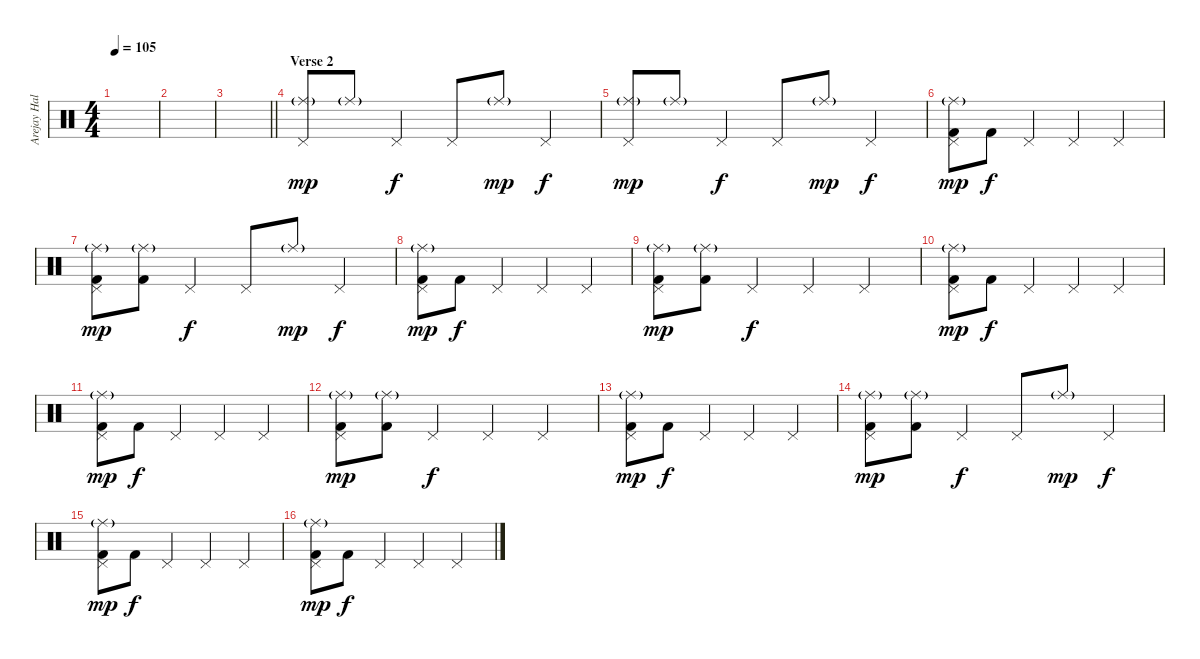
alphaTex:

\track ("Arejay Hale" "Arejay Hal") {instrument percussion}
\staff {score}
\articulation defaults
\ts (4 4)
\tempo 105
\clef neutral
\ks c
|
|
\barLineRight lightlight
|
\section ("" "Verse 2")
("Ride (middle)"{g} "Pedal Hi-Hat (hit)").8{dy mp} "Ride (middle)"{g}.8 "Pedal Hi-Hat (hit)".4{dy f} "Pedal Hi-Hat (hit)".8 "Ride (middle)"{g}.8{dy mp} "Pedal Hi-Hat (hit)".4{dy f} |
("Ride (middle)"{g} "Pedal Hi-Hat (hit)").8{dy mp} "Ride (middle)"{g}.8 "Pedal Hi-Hat (hit)".4{dy f} "Pedal Hi-Hat (hit)".8 "Ride (middle)"{g}.8{dy mp} "Pedal Hi-Hat (hit)".4{dy f} |
("Ride (middle)"{g} "Pedal Hi-Hat (hit)" "Kick (hit) 2").8{dy mp} "Kick (hit) 2".8{dy f} "Pedal Hi-Hat (hit)".4 "Pedal Hi-Hat (hit)".4 "Pedal Hi-Hat (hit)".4 |
("Ride (middle)"{g} "Pedal Hi-Hat (hit)" "Kick (hit) 2").8{dy mp} ("Ride (middle)"{g} "Kick (hit) 2").8 "Pedal Hi-Hat (hit)".4{dy f} "Pedal Hi-Hat (hit)".8 "Ride (middle)"{g}.8{dy mp} "Pedal Hi-Hat (hit)".4{dy f} |
("Ride (middle)"{g} "Pedal Hi-Hat (hit)" "Kick (hit) 2").8{dy mp} "Kick (hit) 2".8{dy f} "Pedal Hi-Hat (hit)".4 "Pedal Hi-Hat (hit)".4 "Pedal Hi-Hat (hit)".4 |
("Ride (middle)"{g} "Pedal Hi-Hat (hit)" "Kick (hit) 2").8{dy mp} ("Ride (middle)"{g} "Kick (hit) 2").8 "Pedal Hi-Hat (hit)".4{dy f} "Pedal Hi-Hat (hit)".4 "Pedal Hi-Hat (hit)".4 |
("Ride (middle)"{g} "Pedal Hi-Hat (hit)" "Kick (hit) 2").8{dy mp} "Kick (hit) 2".8{dy f} "Pedal Hi-Hat (hit)".4 "Pedal Hi-Hat (hit)".4 "Pedal Hi-Hat (hit)".4 |
("Ride (middle)"{g} "Pedal Hi-Hat (hit)" "Kick (hit) 2").8{dy mp} "Kick (hit) 2".8{dy f} "Pedal Hi-Hat (hit)".4 "Pedal Hi-Hat (hit)".4 "Pedal Hi-Hat (hit)".4 |
("Ride (middle)"{g} "Pedal Hi-Hat (hit)" "Kick (hit) 2").8{dy mp} ("Ride (middle)"{g} "Kick (hit) 2").8 "Pedal Hi-Hat (hit)".4{dy f} "Pedal Hi-Hat (hit)".4 "Pedal Hi-Hat (hit)".4 |
("Ride (middle)"{g} "Pedal Hi-Hat (hit)" "Kick (hit) 2").8{dy mp} "Kick (hit) 2".8{dy f} "Pedal Hi-Hat (hit)".4 "Pedal Hi-Hat (hit)".4 "Pedal Hi-Hat (hit)".4 |
("Ride (middle)"{g} "Pedal Hi-Hat (hit)" "Kick (hit) 2").8{dy mp} ("Ride (middle)"{g} "Kick (hit) 2").8 "Pedal Hi-Hat (hit)".4{dy f} "Pedal Hi-Hat (hit)".8 "Ride (middle)"{g}.8{dy mp} "Pedal Hi-Hat (hit)".4{dy f} |
("Ride (middle)"{g} "Pedal Hi-Hat (hit)" "Kick (hit) 2").8{dy mp} "Kick (hit) 2".8{dy f} "Pedal Hi-Hat (hit)".4 "Pedal Hi-Hat (hit)".4 "Pedal Hi-Hat (hit)".4 |
("Ride (middle)"{g} "Pedal Hi-Hat (hit)" "Kick (hit) 2").8{dy mp} "Kick (hit) 2".8{dy f} "Pedal Hi-Hat (hit)".4 "Pedal Hi-Hat (hit)".4 "Pedal Hi-Hat (hit)".4
